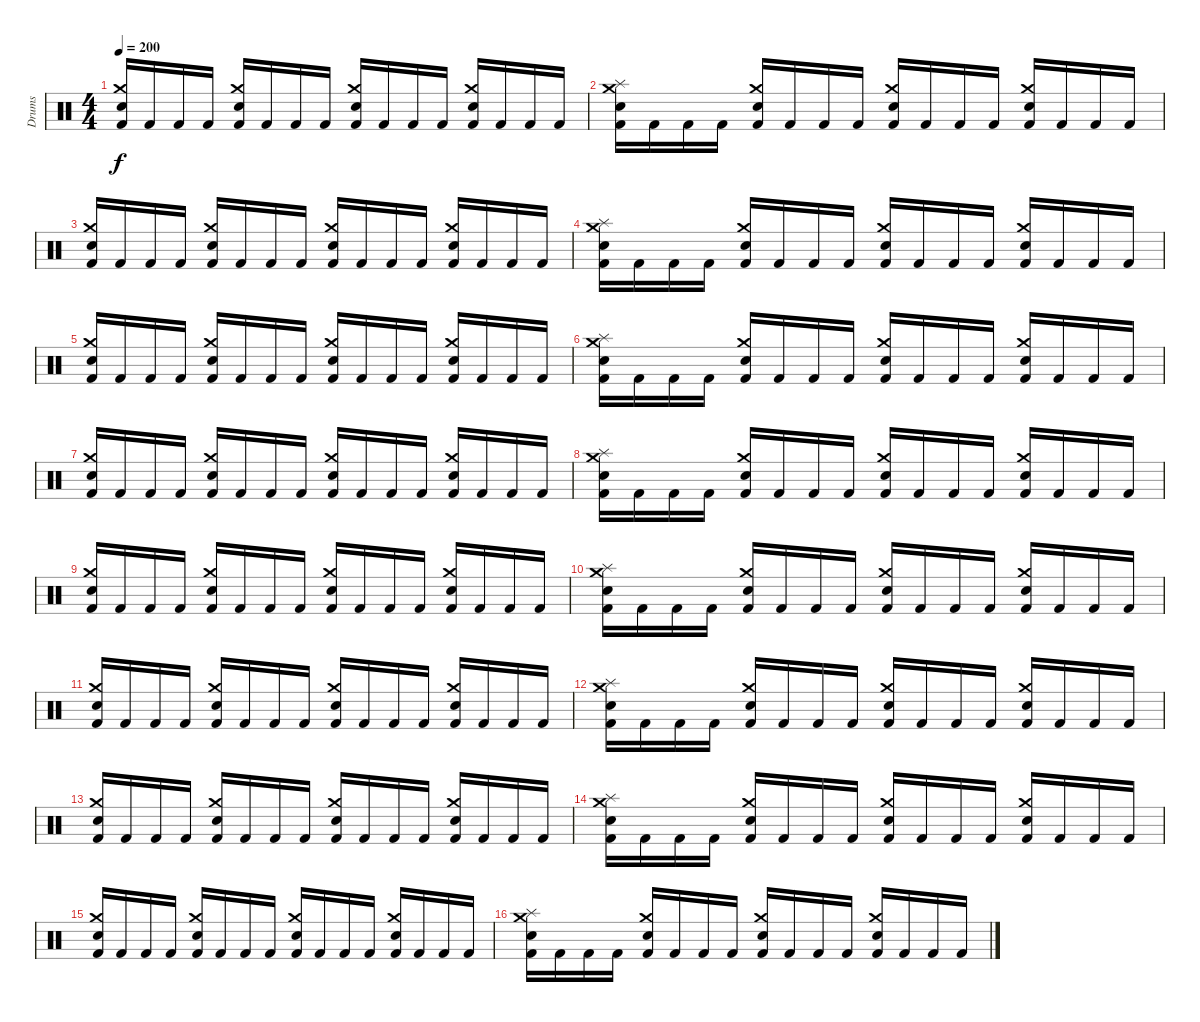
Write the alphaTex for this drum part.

\track ("Drums" "Drums") {instrument percussion}
\staff {score}
\articulation defaults
\ts (4 4)
\tempo 200
\clef neutral
\ks c
("Kick (hit) 2" "Crash medium (hit)" "Snare (hit) 2").16{dy f} "Kick (hit) 2".16 "Kick (hit) 2".16 "Kick (hit) 2".16 ("Kick (hit) 2" "Crash medium (hit)" "Snare (hit) 2").16 "Kick (hit) 2".16 "Kick (hit) 2".16 "Kick (hit) 2".16 ("Kick (hit) 2" "Crash medium (hit)" "Snare (hit) 2").16 "Kick (hit) 2".16 "Kick (hit) 2".16 "Kick (hit) 2".16 ("Kick (hit) 2" "Crash medium (hit)" "Snare (hit) 2").16 "Kick (hit) 2".16 "Kick (hit) 2".16 "Kick (hit) 2".16 |
("Kick (hit) 2" "Crash medium (hit)" "Snare (hit) 2" "Splash (hit)").16 "Kick (hit) 2".16 "Kick (hit) 2".16 "Kick (hit) 2".16 ("Kick (hit) 2" "Crash medium (hit)" "Snare (hit) 2").16 "Kick (hit) 2".16 "Kick (hit) 2".16 "Kick (hit) 2".16 ("Kick (hit) 2" "Crash medium (hit)" "Snare (hit) 2").16 "Kick (hit) 2".16 "Kick (hit) 2".16 "Kick (hit) 2".16 ("Kick (hit) 2" "Crash medium (hit)" "Snare (hit) 2").16 "Kick (hit) 2".16 "Kick (hit) 2".16 "Kick (hit) 2".16 |
("Kick (hit) 2" "Crash medium (hit)" "Snare (hit) 2").16 "Kick (hit) 2".16 "Kick (hit) 2".16 "Kick (hit) 2".16 ("Kick (hit) 2" "Crash medium (hit)" "Snare (hit) 2").16 "Kick (hit) 2".16 "Kick (hit) 2".16 "Kick (hit) 2".16 ("Kick (hit) 2" "Crash medium (hit)" "Snare (hit) 2").16 "Kick (hit) 2".16 "Kick (hit) 2".16 "Kick (hit) 2".16 ("Kick (hit) 2" "Crash medium (hit)" "Snare (hit) 2").16 "Kick (hit) 2".16 "Kick (hit) 2".16 "Kick (hit) 2".16 |
("Kick (hit) 2" "Crash medium (hit)" "Snare (hit) 2" "Splash (hit)").16 "Kick (hit) 2".16 "Kick (hit) 2".16 "Kick (hit) 2".16 ("Kick (hit) 2" "Crash medium (hit)" "Snare (hit) 2").16 "Kick (hit) 2".16 "Kick (hit) 2".16 "Kick (hit) 2".16 ("Kick (hit) 2" "Crash medium (hit)" "Snare (hit) 2").16 "Kick (hit) 2".16 "Kick (hit) 2".16 "Kick (hit) 2".16 ("Kick (hit) 2" "Crash medium (hit)" "Snare (hit) 2").16 "Kick (hit) 2".16 "Kick (hit) 2".16 "Kick (hit) 2".16 |
("Kick (hit) 2" "Crash medium (hit)" "Snare (hit) 2").16 "Kick (hit) 2".16 "Kick (hit) 2".16 "Kick (hit) 2".16 ("Kick (hit) 2" "Crash medium (hit)" "Snare (hit) 2").16 "Kick (hit) 2".16 "Kick (hit) 2".16 "Kick (hit) 2".16 ("Kick (hit) 2" "Crash medium (hit)" "Snare (hit) 2").16 "Kick (hit) 2".16 "Kick (hit) 2".16 "Kick (hit) 2".16 ("Kick (hit) 2" "Crash medium (hit)" "Snare (hit) 2").16 "Kick (hit) 2".16 "Kick (hit) 2".16 "Kick (hit) 2".16 |
("Kick (hit) 2" "Crash medium (hit)" "Snare (hit) 2" "Splash (hit)").16 "Kick (hit) 2".16 "Kick (hit) 2".16 "Kick (hit) 2".16 ("Kick (hit) 2" "Crash medium (hit)" "Snare (hit) 2").16 "Kick (hit) 2".16 "Kick (hit) 2".16 "Kick (hit) 2".16 ("Kick (hit) 2" "Crash medium (hit)" "Snare (hit) 2").16 "Kick (hit) 2".16 "Kick (hit) 2".16 "Kick (hit) 2".16 ("Kick (hit) 2" "Crash medium (hit)" "Snare (hit) 2").16 "Kick (hit) 2".16 "Kick (hit) 2".16 "Kick (hit) 2".16 |
("Kick (hit) 2" "Crash medium (hit)" "Snare (hit) 2").16 "Kick (hit) 2".16 "Kick (hit) 2".16 "Kick (hit) 2".16 ("Kick (hit) 2" "Crash medium (hit)" "Snare (hit) 2").16 "Kick (hit) 2".16 "Kick (hit) 2".16 "Kick (hit) 2".16 ("Kick (hit) 2" "Crash medium (hit)" "Snare (hit) 2").16 "Kick (hit) 2".16 "Kick (hit) 2".16 "Kick (hit) 2".16 ("Kick (hit) 2" "Crash medium (hit)" "Snare (hit) 2").16 "Kick (hit) 2".16 "Kick (hit) 2".16 "Kick (hit) 2".16 |
("Kick (hit) 2" "Crash medium (hit)" "Snare (hit) 2" "Splash (hit)").16 "Kick (hit) 2".16 "Kick (hit) 2".16 "Kick (hit) 2".16 ("Kick (hit) 2" "Crash medium (hit)" "Snare (hit) 2").16 "Kick (hit) 2".16 "Kick (hit) 2".16 "Kick (hit) 2".16 ("Kick (hit) 2" "Crash medium (hit)" "Snare (hit) 2").16 "Kick (hit) 2".16 "Kick (hit) 2".16 "Kick (hit) 2".16 ("Kick (hit) 2" "Crash medium (hit)" "Snare (hit) 2").16 "Kick (hit) 2".16 "Kick (hit) 2".16 "Kick (hit) 2".16 |
("Kick (hit) 2" "Crash medium (hit)" "Snare (hit) 2").16 "Kick (hit) 2".16 "Kick (hit) 2".16 "Kick (hit) 2".16 ("Kick (hit) 2" "Crash medium (hit)" "Snare (hit) 2").16 "Kick (hit) 2".16 "Kick (hit) 2".16 "Kick (hit) 2".16 ("Kick (hit) 2" "Crash medium (hit)" "Snare (hit) 2").16 "Kick (hit) 2".16 "Kick (hit) 2".16 "Kick (hit) 2".16 ("Kick (hit) 2" "Crash medium (hit)" "Snare (hit) 2").16 "Kick (hit) 2".16 "Kick (hit) 2".16 "Kick (hit) 2".16 |
("Kick (hit) 2" "Crash medium (hit)" "Snare (hit) 2" "Splash (hit)").16 "Kick (hit) 2".16 "Kick (hit) 2".16 "Kick (hit) 2".16 ("Kick (hit) 2" "Crash medium (hit)" "Snare (hit) 2").16 "Kick (hit) 2".16 "Kick (hit) 2".16 "Kick (hit) 2".16 ("Kick (hit) 2" "Crash medium (hit)" "Snare (hit) 2").16 "Kick (hit) 2".16 "Kick (hit) 2".16 "Kick (hit) 2".16 ("Kick (hit) 2" "Crash medium (hit)" "Snare (hit) 2").16 "Kick (hit) 2".16 "Kick (hit) 2".16 "Kick (hit) 2".16 |
("Kick (hit) 2" "Crash medium (hit)" "Snare (hit) 2").16 "Kick (hit) 2".16 "Kick (hit) 2".16 "Kick (hit) 2".16 ("Kick (hit) 2" "Crash medium (hit)" "Snare (hit) 2").16 "Kick (hit) 2".16 "Kick (hit) 2".16 "Kick (hit) 2".16 ("Kick (hit) 2" "Crash medium (hit)" "Snare (hit) 2").16 "Kick (hit) 2".16 "Kick (hit) 2".16 "Kick (hit) 2".16 ("Kick (hit) 2" "Crash medium (hit)" "Snare (hit) 2").16 "Kick (hit) 2".16 "Kick (hit) 2".16 "Kick (hit) 2".16 |
("Kick (hit) 2" "Crash medium (hit)" "Snare (hit) 2" "Splash (hit)").16 "Kick (hit) 2".16 "Kick (hit) 2".16 "Kick (hit) 2".16 ("Kick (hit) 2" "Crash medium (hit)" "Snare (hit) 2").16 "Kick (hit) 2".16 "Kick (hit) 2".16 "Kick (hit) 2".16 ("Kick (hit) 2" "Crash medium (hit)" "Snare (hit) 2").16 "Kick (hit) 2".16 "Kick (hit) 2".16 "Kick (hit) 2".16 ("Kick (hit) 2" "Crash medium (hit)" "Snare (hit) 2").16 "Kick (hit) 2".16 "Kick (hit) 2".16 "Kick (hit) 2".16 |
("Kick (hit) 2" "Crash medium (hit)" "Snare (hit) 2").16 "Kick (hit) 2".16 "Kick (hit) 2".16 "Kick (hit) 2".16 ("Kick (hit) 2" "Crash medium (hit)" "Snare (hit) 2").16 "Kick (hit) 2".16 "Kick (hit) 2".16 "Kick (hit) 2".16 ("Kick (hit) 2" "Crash medium (hit)" "Snare (hit) 2").16 "Kick (hit) 2".16 "Kick (hit) 2".16 "Kick (hit) 2".16 ("Kick (hit) 2" "Crash medium (hit)" "Snare (hit) 2").16 "Kick (hit) 2".16 "Kick (hit) 2".16 "Kick (hit) 2".16 |
("Kick (hit) 2" "Crash medium (hit)" "Snare (hit) 2" "Splash (hit)").16 "Kick (hit) 2".16 "Kick (hit) 2".16 "Kick (hit) 2".16 ("Kick (hit) 2" "Crash medium (hit)" "Snare (hit) 2").16 "Kick (hit) 2".16 "Kick (hit) 2".16 "Kick (hit) 2".16 ("Kick (hit) 2" "Crash medium (hit)" "Snare (hit) 2").16 "Kick (hit) 2".16 "Kick (hit) 2".16 "Kick (hit) 2".16 ("Kick (hit) 2" "Crash medium (hit)" "Snare (hit) 2").16 "Kick (hit) 2".16 "Kick (hit) 2".16 "Kick (hit) 2".16 |
("Kick (hit) 2" "Crash medium (hit)" "Snare (hit) 2").16 "Kick (hit) 2".16 "Kick (hit) 2".16 "Kick (hit) 2".16 ("Kick (hit) 2" "Crash medium (hit)" "Snare (hit) 2").16 "Kick (hit) 2".16 "Kick (hit) 2".16 "Kick (hit) 2".16 ("Kick (hit) 2" "Crash medium (hit)" "Snare (hit) 2").16 "Kick (hit) 2".16 "Kick (hit) 2".16 "Kick (hit) 2".16 ("Kick (hit) 2" "Crash medium (hit)" "Snare (hit) 2").16 "Kick (hit) 2".16 "Kick (hit) 2".16 "Kick (hit) 2".16 |
("Kick (hit) 2" "Crash medium (hit)" "Snare (hit) 2" "Splash (hit)").16 "Kick (hit) 2".16 "Kick (hit) 2".16 "Kick (hit) 2".16 ("Kick (hit) 2" "Crash medium (hit)" "Snare (hit) 2").16 "Kick (hit) 2".16 "Kick (hit) 2".16 "Kick (hit) 2".16 ("Kick (hit) 2" "Crash medium (hit)" "Snare (hit) 2").16 "Kick (hit) 2".16 "Kick (hit) 2".16 "Kick (hit) 2".16 ("Kick (hit) 2" "Crash medium (hit)" "Snare (hit) 2").16 "Kick (hit) 2".16 "Kick (hit) 2".16 "Kick (hit) 2".16
